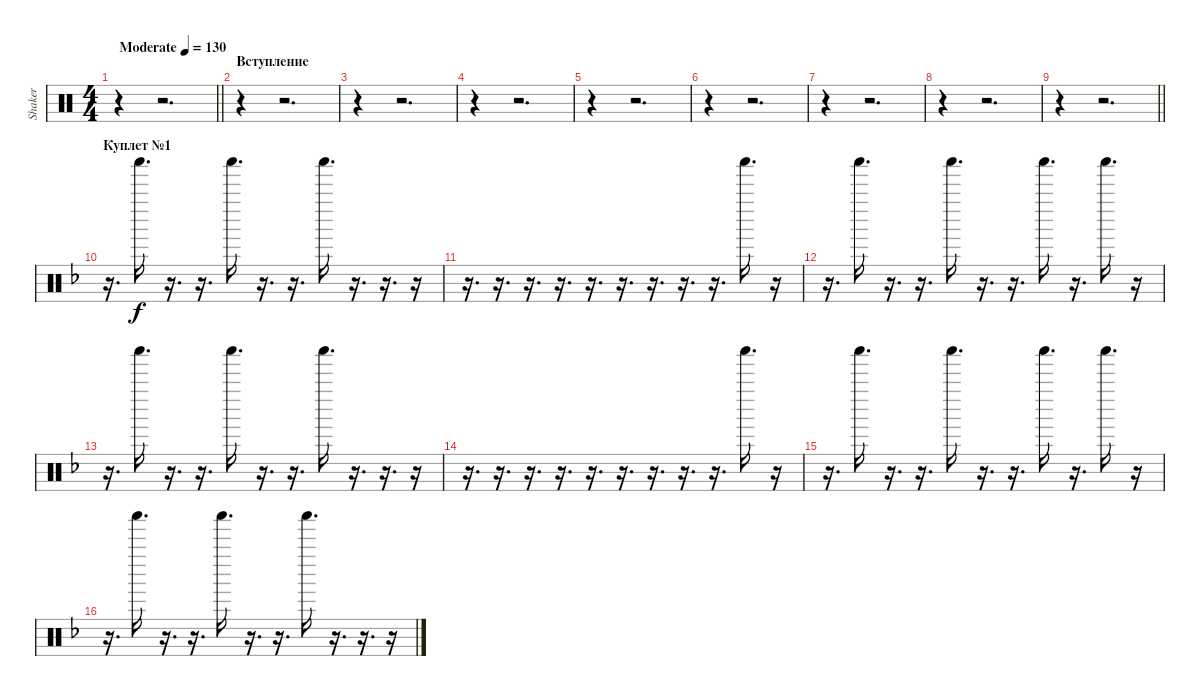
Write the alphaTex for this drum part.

\track ("Shaker" "Shaker") {instrument percussion}
\staff {score}
\articulation defaults
\ts (4 4)
\tempo (130 "Moderate")
\clef neutral
\barLineRight lightlight
\ks c
r.4{dy f} r.2{d} |
\section ("" "Вступление")
r.4 r.2{d} |
r.4 r.2{d} |
r.4 r.2{d} |
r.4 r.2{d} |
r.4 r.2{d} |
r.4 r.2{d} |
r.4 r.2{d} |
\barLineRight lightlight
r.4 r.2{d} |
\section ("" "Куплет №1")
\ks f
r.16{d} "Shaker (hit)".16{d} r.16{d} r.16{d} "Shaker (hit)".16{d} r.16{d} r.16{d} "Shaker (hit)".16{d} r.16{d} r.16{d} r.16 |
r.16{d} r.16{d} r.16{d} r.16{d} r.16{d} r.16{d} r.16{d} r.16{d} r.16{d} "Shaker (hit)".16{d} r.16 |
r.16{d} "Shaker (hit)".16{d} r.16{d} r.16{d} "Shaker (hit)".16{d} r.16{d} r.16{d} "Shaker (hit)".16{d} r.16{d} "Shaker (hit)".16{d} r.16 |
r.16{d} "Shaker (hit)".16{d} r.16{d} r.16{d} "Shaker (hit)".16{d} r.16{d} r.16{d} "Shaker (hit)".16{d} r.16{d} r.16{d} r.16 |
r.16{d} r.16{d} r.16{d} r.16{d} r.16{d} r.16{d} r.16{d} r.16{d} r.16{d} "Shaker (hit)".16{d} r.16 |
r.16{d} "Shaker (hit)".16{d} r.16{d} r.16{d} "Shaker (hit)".16{d} r.16{d} r.16{d} "Shaker (hit)".16{d} r.16{d} "Shaker (hit)".16{d} r.16 |
r.16{d} "Shaker (hit)".16{d} r.16{d} r.16{d} "Shaker (hit)".16{d} r.16{d} r.16{d} "Shaker (hit)".16{d} r.16{d} r.16{d} r.16
